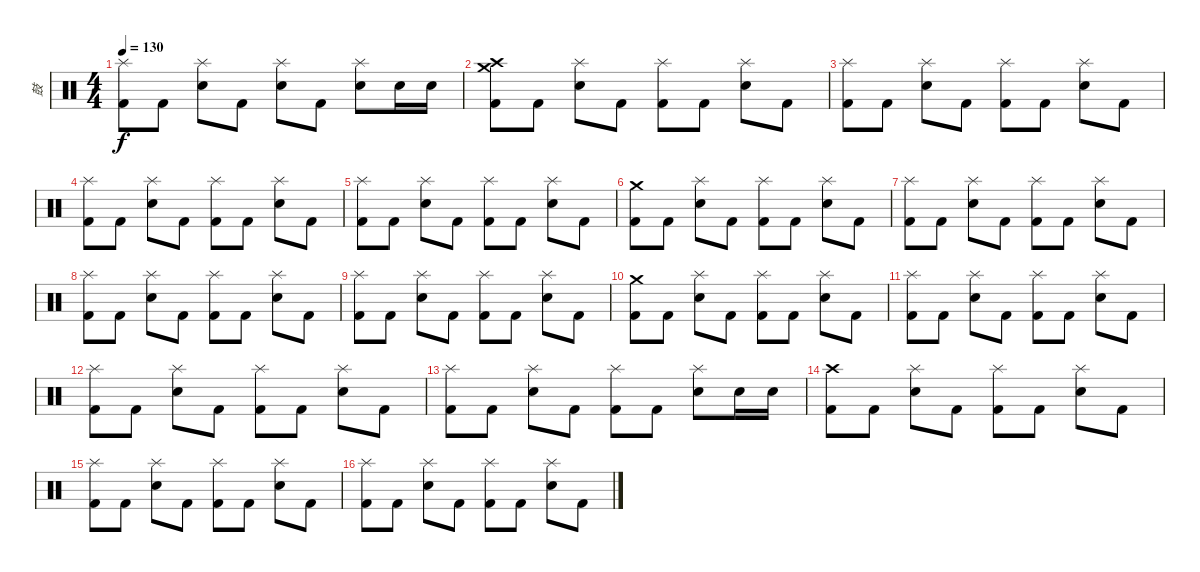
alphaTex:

\track ("鼓" "鼓") {instrument percussion}
\staff {score}
\articulation defaults
\ts (4 4)
\tempo 130
\clef neutral
\ks c
("Splash (hit)" "Kick (hit) 2").8{dy f} "Kick (hit) 2".8 ("Splash (hit)" "Electric Snare (hit)").8 "Kick (hit) 2".8 ("Splash (hit)" "Electric Snare (hit)").8 "Kick (hit) 2".8 ("Splash (hit)" "Electric Snare (hit)").8 "Electric Snare (hit)".16 "Electric Snare (hit)".16 |
("Crash medium (hit)" "Crash high (hit)" "Kick (hit) 2").8 "Kick (hit) 2".8 ("Splash (hit)" "Electric Snare (hit)").8 "Kick (hit) 2".8 ("Splash (hit)" "Kick (hit) 2").8 "Kick (hit) 2".8 ("Splash (hit)" "Electric Snare (hit)").8 "Kick (hit) 2".8 |
("Splash (hit)" "Kick (hit) 2").8 "Kick (hit) 2".8 ("Splash (hit)" "Electric Snare (hit)").8 "Kick (hit) 2".8 ("Splash (hit)" "Kick (hit) 2").8 "Kick (hit) 2".8 ("Splash (hit)" "Electric Snare (hit)").8 "Kick (hit) 2".8 |
("Splash (hit)" "Kick (hit) 2").8 "Kick (hit) 2".8 ("Splash (hit)" "Electric Snare (hit)").8 "Kick (hit) 2".8 ("Splash (hit)" "Kick (hit) 2").8 "Kick (hit) 2".8 ("Splash (hit)" "Electric Snare (hit)").8 "Kick (hit) 2".8 |
("Splash (hit)" "Kick (hit) 2").8 "Kick (hit) 2".8 ("Splash (hit)" "Electric Snare (hit)").8 "Kick (hit) 2".8 ("Splash (hit)" "Kick (hit) 2").8 "Kick (hit) 2".8 ("Splash (hit)" "Electric Snare (hit)").8 "Kick (hit) 2".8 |
("Crash medium (hit)" "Kick (hit) 2").8 "Kick (hit) 2".8 ("Splash (hit)" "Electric Snare (hit)").8 "Kick (hit) 2".8 ("Splash (hit)" "Kick (hit) 2").8 "Kick (hit) 2".8 ("Splash (hit)" "Electric Snare (hit)").8 "Kick (hit) 2".8 |
("Splash (hit)" "Kick (hit) 2").8 "Kick (hit) 2".8 ("Splash (hit)" "Electric Snare (hit)").8 "Kick (hit) 2".8 ("Splash (hit)" "Kick (hit) 2").8 "Kick (hit) 2".8 ("Splash (hit)" "Electric Snare (hit)").8 "Kick (hit) 2".8 |
("Splash (hit)" "Kick (hit) 2").8 "Kick (hit) 2".8 ("Splash (hit)" "Electric Snare (hit)").8 "Kick (hit) 2".8 ("Splash (hit)" "Kick (hit) 2").8 "Kick (hit) 2".8 ("Splash (hit)" "Electric Snare (hit)").8 "Kick (hit) 2".8 |
("Splash (hit)" "Kick (hit) 2").8 "Kick (hit) 2".8 ("Splash (hit)" "Electric Snare (hit)").8 "Kick (hit) 2".8 ("Splash (hit)" "Kick (hit) 2").8 "Kick (hit) 2".8 ("Splash (hit)" "Electric Snare (hit)").8 "Kick (hit) 2".8 |
("Crash medium (hit)" "Kick (hit) 2").8 "Kick (hit) 2".8 ("Splash (hit)" "Electric Snare (hit)").8 "Kick (hit) 2".8 ("Splash (hit)" "Kick (hit) 2").8 "Kick (hit) 2".8 ("Splash (hit)" "Electric Snare (hit)").8 "Kick (hit) 2".8 |
("Splash (hit)" "Kick (hit) 2").8 "Kick (hit) 2".8 ("Splash (hit)" "Electric Snare (hit)").8 "Kick (hit) 2".8 ("Splash (hit)" "Kick (hit) 2").8 "Kick (hit) 2".8 ("Splash (hit)" "Electric Snare (hit)").8 "Kick (hit) 2".8 |
("Splash (hit)" "Kick (hit) 2").8 "Kick (hit) 2".8 ("Splash (hit)" "Electric Snare (hit)").8 "Kick (hit) 2".8 ("Splash (hit)" "Kick (hit) 2").8 "Kick (hit) 2".8 ("Splash (hit)" "Electric Snare (hit)").8 "Kick (hit) 2".8 |
("Splash (hit)" "Kick (hit) 2").8 "Kick (hit) 2".8 ("Splash (hit)" "Electric Snare (hit)").8 "Kick (hit) 2".8 ("Splash (hit)" "Kick (hit) 2").8 "Kick (hit) 2".8 ("Splash (hit)" "Electric Snare (hit)").8 "Electric Snare (hit)".16 "Electric Snare (hit)".16 |
("Crash high (hit)" "Kick (hit) 2").8 "Kick (hit) 2".8 ("Splash (hit)" "Electric Snare (hit)").8 "Kick (hit) 2".8 ("Splash (hit)" "Kick (hit) 2").8 "Kick (hit) 2".8 ("Splash (hit)" "Electric Snare (hit)").8 "Kick (hit) 2".8 |
("Splash (hit)" "Kick (hit) 2").8 "Kick (hit) 2".8 ("Splash (hit)" "Electric Snare (hit)").8 "Kick (hit) 2".8 ("Splash (hit)" "Kick (hit) 2").8 "Kick (hit) 2".8 ("Splash (hit)" "Electric Snare (hit)").8 "Kick (hit) 2".8 |
("Splash (hit)" "Kick (hit) 2").8 "Kick (hit) 2".8 ("Splash (hit)" "Electric Snare (hit)").8 "Kick (hit) 2".8 ("Splash (hit)" "Kick (hit) 2").8 "Kick (hit) 2".8 ("Splash (hit)" "Electric Snare (hit)").8 "Kick (hit) 2".8
